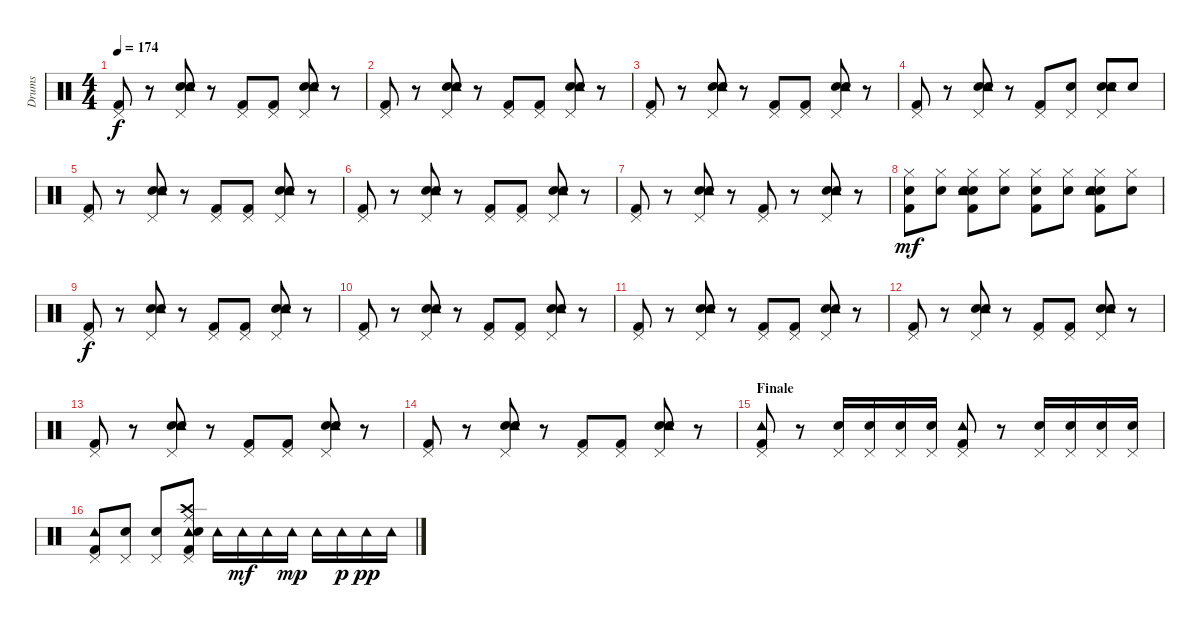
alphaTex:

\track ("Drums" "Drums") {instrument percussion}
\staff {score}
\articulation defaults
\ts (4 4)
\tempo 174
\clef neutral
\ks c
("Pedal Hi-Hat (hit)" "Kick (hit) 2").8{dy f} r.8 ("Pedal Hi-Hat (hit)" "Hand Clap (hit)" "Tambourine (hit)" "Snare (hit) 2").8 r.8 ("Pedal Hi-Hat (hit)" "Kick (hit) 2").8 ("Pedal Hi-Hat (hit)" "Kick (hit) 2").8 ("Pedal Hi-Hat (hit)" "Hand Clap (hit)" "Tambourine (hit)" "Snare (hit) 2").8 r.8 |
("Pedal Hi-Hat (hit)" "Kick (hit) 2").8 r.8 ("Pedal Hi-Hat (hit)" "Hand Clap (hit)" "Tambourine (hit)" "Snare (hit) 2").8 r.8 ("Pedal Hi-Hat (hit)" "Kick (hit) 2").8 ("Pedal Hi-Hat (hit)" "Kick (hit) 2").8 ("Pedal Hi-Hat (hit)" "Hand Clap (hit)" "Tambourine (hit)" "Snare (hit) 2").8 r.8 |
("Pedal Hi-Hat (hit)" "Kick (hit) 2").8 r.8 ("Pedal Hi-Hat (hit)" "Hand Clap (hit)" "Tambourine (hit)" "Snare (hit) 2").8 r.8 ("Pedal Hi-Hat (hit)" "Kick (hit) 2").8 ("Pedal Hi-Hat (hit)" "Kick (hit) 2").8 ("Pedal Hi-Hat (hit)" "Hand Clap (hit)" "Tambourine (hit)" "Snare (hit) 2").8 r.8 |
("Pedal Hi-Hat (hit)" "Kick (hit) 2").8 r.8 ("Pedal Hi-Hat (hit)" "Hand Clap (hit)" "Tambourine (hit)" "Snare (hit) 2").8 r.8 ("Pedal Hi-Hat (hit)" "Kick (hit) 2").8 ("Pedal Hi-Hat (hit)" "Snare (hit) 2").8 ("Pedal Hi-Hat (hit)" "Hand Clap (hit)" "Tambourine (hit)" "Snare (hit) 2").8 "Snare (hit) 2".8 |
("Pedal Hi-Hat (hit)" "Kick (hit) 2").8 r.8 ("Pedal Hi-Hat (hit)" "Hand Clap (hit)" "Tambourine (hit)" "Snare (hit) 2").8 r.8 ("Pedal Hi-Hat (hit)" "Kick (hit) 2").8 ("Pedal Hi-Hat (hit)" "Kick (hit) 2").8 ("Pedal Hi-Hat (hit)" "Hand Clap (hit)" "Tambourine (hit)" "Snare (hit) 2").8 r.8 |
("Pedal Hi-Hat (hit)" "Kick (hit) 2").8 r.8 ("Pedal Hi-Hat (hit)" "Hand Clap (hit)" "Tambourine (hit)" "Snare (hit) 2").8 r.8 ("Pedal Hi-Hat (hit)" "Kick (hit) 2").8 ("Pedal Hi-Hat (hit)" "Kick (hit) 2").8 ("Pedal Hi-Hat (hit)" "Hand Clap (hit)" "Tambourine (hit)" "Snare (hit) 2").8 r.8 |
("Pedal Hi-Hat (hit)" "Kick (hit) 2").8 r.8 ("Pedal Hi-Hat (hit)" "Hand Clap (hit)" "Tambourine (hit)" "Snare (hit) 2").8 r.8 ("Pedal Hi-Hat (hit)" "Kick (hit) 2").8 r.8 ("Pedal Hi-Hat (hit)" "Hand Clap (hit)" "Tambourine (hit)" "Snare (hit) 2").8 r.8 |
("Hi-Hat (closed)" "Snare (hit) 2" "Kick (hit) 2").8{dy mf} ("Hi-Hat (closed)" "Snare (hit) 2").8 ("Hi-Hat (closed)" "Hand Clap (hit)" "Tambourine (hit)" "Snare (hit) 2" "Kick (hit) 2").8 ("Hi-Hat (closed)" "Snare (hit) 2").8 ("Hi-Hat (closed)" "Snare (hit) 2" "Kick (hit) 2").8 ("Hi-Hat (closed)" "Snare (hit) 2").8 ("Hi-Hat (closed)" "Hand Clap (hit)" "Tambourine (hit)" "Snare (hit) 2" "Kick (hit) 2").8 ("Hi-Hat (closed)" "Snare (hit) 2").8 |
("Pedal Hi-Hat (hit)" "Kick (hit) 2").8{dy f} r.8 ("Pedal Hi-Hat (hit)" "Hand Clap (hit)" "Tambourine (hit)" "Snare (hit) 2").8 r.8 ("Pedal Hi-Hat (hit)" "Kick (hit) 2").8 ("Pedal Hi-Hat (hit)" "Kick (hit) 2").8 ("Pedal Hi-Hat (hit)" "Hand Clap (hit)" "Tambourine (hit)" "Snare (hit) 2").8 r.8 |
("Pedal Hi-Hat (hit)" "Kick (hit) 2").8 r.8 ("Pedal Hi-Hat (hit)" "Hand Clap (hit)" "Tambourine (hit)" "Snare (hit) 2").8 r.8 ("Pedal Hi-Hat (hit)" "Kick (hit) 2").8 ("Pedal Hi-Hat (hit)" "Kick (hit) 2").8 ("Pedal Hi-Hat (hit)" "Hand Clap (hit)" "Tambourine (hit)" "Snare (hit) 2").8 r.8 |
("Pedal Hi-Hat (hit)" "Kick (hit) 2").8 r.8 ("Pedal Hi-Hat (hit)" "Hand Clap (hit)" "Tambourine (hit)" "Snare (hit) 2").8 r.8 ("Pedal Hi-Hat (hit)" "Kick (hit) 2").8 ("Pedal Hi-Hat (hit)" "Kick (hit) 2").8 ("Pedal Hi-Hat (hit)" "Hand Clap (hit)" "Tambourine (hit)" "Snare (hit) 2").8 r.8 |
("Pedal Hi-Hat (hit)" "Kick (hit) 2").8 r.8 ("Pedal Hi-Hat (hit)" "Hand Clap (hit)" "Tambourine (hit)" "Snare (hit) 2").8 r.8 ("Pedal Hi-Hat (hit)" "Kick (hit) 2").8 ("Pedal Hi-Hat (hit)" "Kick (hit) 2").8 ("Pedal Hi-Hat (hit)" "Hand Clap (hit)" "Tambourine (hit)" "Snare (hit) 2").8 r.8 |
("Pedal Hi-Hat (hit)" "Kick (hit) 2").8 r.8 ("Pedal Hi-Hat (hit)" "Hand Clap (hit)" "Tambourine (hit)" "Snare (hit) 2").8 r.8 ("Pedal Hi-Hat (hit)" "Kick (hit) 2").8 ("Pedal Hi-Hat (hit)" "Kick (hit) 2").8 ("Pedal Hi-Hat (hit)" "Hand Clap (hit)" "Tambourine (hit)" "Snare (hit) 2").8 r.8 |
("Pedal Hi-Hat (hit)" "Kick (hit) 2").8 r.8 ("Pedal Hi-Hat (hit)" "Hand Clap (hit)" "Tambourine (hit)" "Snare (hit) 2").8 r.8 ("Pedal Hi-Hat (hit)" "Kick (hit) 2").8 ("Pedal Hi-Hat (hit)" "Kick (hit) 2").8 ("Pedal Hi-Hat (hit)" "Hand Clap (hit)" "Tambourine (hit)" "Snare (hit) 2").8 r.8 |
\section ("" "Finale")
("Pedal Hi-Hat (hit)" "Tambourine (hit)" "Kick (hit) 2").8 r.8 ("Pedal Hi-Hat (hit)" "Snare (hit) 2").16 ("Pedal Hi-Hat (hit)" "Snare (hit) 2").16 ("Pedal Hi-Hat (hit)" "Snare (hit) 2").16 ("Pedal Hi-Hat (hit)" "Snare (hit) 2").16 ("Pedal Hi-Hat (hit)" "Tambourine (hit)" "Kick (hit) 2").8 r.8 ("Pedal Hi-Hat (hit)" "Snare (hit) 2").16 ("Pedal Hi-Hat (hit)" "Snare (hit) 2").16 ("Pedal Hi-Hat (hit)" "Snare (hit) 2").16 ("Pedal Hi-Hat (hit)" "Snare (hit) 2").16 |
("Pedal Hi-Hat (hit)" "Tambourine (hit)" "Kick (hit) 2").8 ("Pedal Hi-Hat (hit)" "Snare (hit) 2").8 ("Pedal Hi-Hat (hit)" "Snare (hit) 2").8 ("Crash high (hit)" "Pedal Hi-Hat (hit)" "Ride (middle)" "Tambourine (hit)" "Snare (hit) 2" "Kick (hit) 2").8 "Tambourine (hit)".16 "Tambourine (hit)".16{dy mf} "Tambourine (hit)".16 "Tambourine (hit)".16{dy mp} "Tambourine (hit)".16 "Tambourine (hit)".16{dy p} "Tambourine (hit)".16{dy pp} "Tambourine (hit)".16
